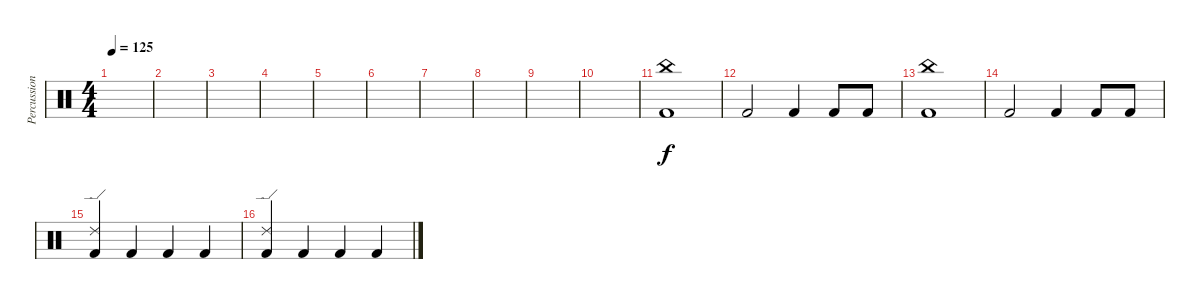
\track ("Percussion" "Percussion") {instrument percussion}
\staff {score}
\articulation defaults
\ts (4 4)
\tempo 125
\clef neutral
\ks c
|
|
|
|
|
|
|
|
|
|
("Kick (hit) 2" "China (hit)").1 |
"Kick (hit) 2".2 "Kick (hit) 2".4 "Kick (hit) 2".8 "Kick (hit) 2".8 |
("Kick (hit) 2" "China (hit)").1 |
"Kick (hit) 2".2 "Kick (hit) 2".4 "Kick (hit) 2".8 "Kick (hit) 2".8 |
("Kick (hit) 2" "Ride (edge) 2").4 "Kick (hit) 2".4 "Kick (hit) 2".4 "Kick (hit) 2".4 |
("Kick (hit) 2" "Ride (edge) 2").4 "Kick (hit) 2".4 "Kick (hit) 2".4 "Kick (hit) 2".4
